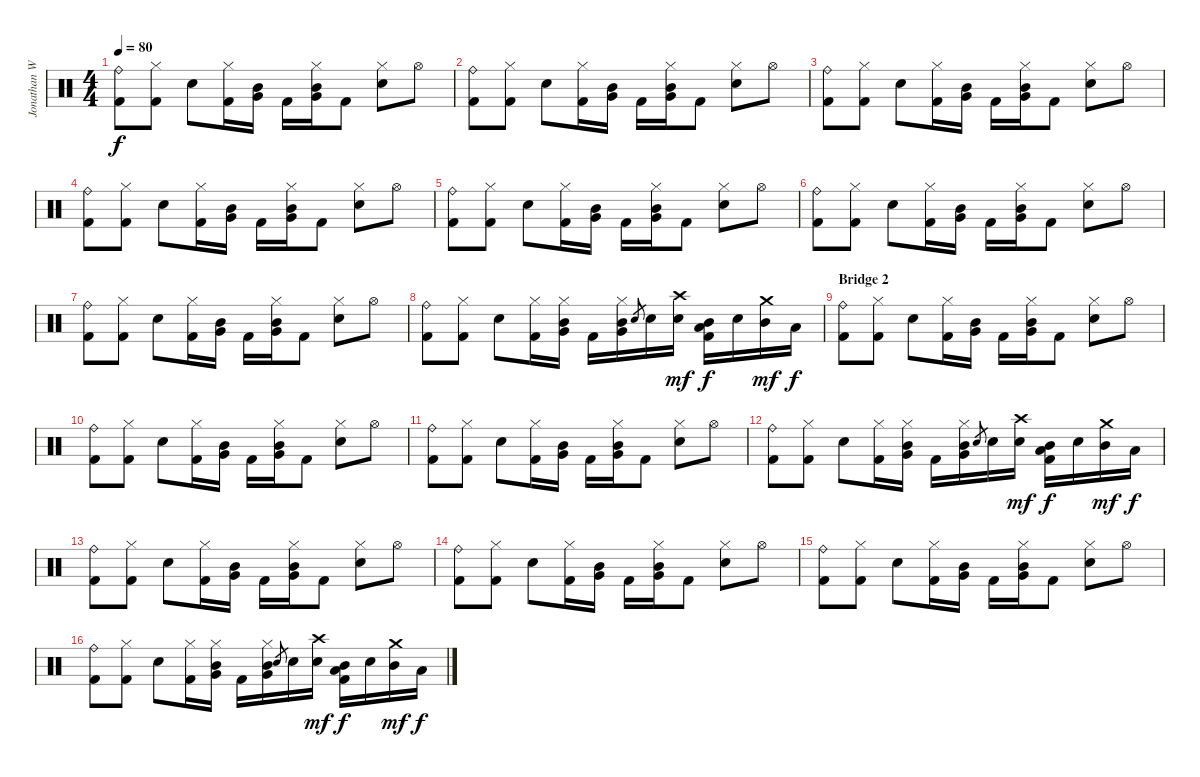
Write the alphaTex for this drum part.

\track ("Jonathan Wenzel" "Jonathan W") {instrument percussion}
\staff {score}
\articulation defaults
\ts (4 4)
\tempo 80
\clef neutral
\ks c
("Ride (bell)" "Kick (hit) 2").8{dy f volume 16} ("Hi-Hat (closed)" "Kick (hit) 2").8 "Snare (hit) 2".8 ("Hi-Hat (closed)" "Kick (hit) 2").16 ("Mid Tom (hit)" "Very Low Tom (hit)").16 "Kick (hit) 2".16 ("Hi-Hat (closed)" "Mid Tom (hit)" "Very Low Tom (hit)").16 "Kick (hit) 2".8 ("Hi-Hat (closed)" "Snare (hit) 2").8 "Hi-Hat (open)".8 |
("Ride (bell)" "Kick (hit) 2").8 ("Hi-Hat (closed)" "Kick (hit) 2").8 "Snare (hit) 2".8 ("Hi-Hat (closed)" "Kick (hit) 2").16 ("Mid Tom (hit)" "Very Low Tom (hit)").16 "Kick (hit) 2".16 ("Hi-Hat (closed)" "Mid Tom (hit)" "Very Low Tom (hit)").16 "Kick (hit) 2".8 ("Hi-Hat (closed)" "Snare (hit) 2").8 "Hi-Hat (open)".8 |
("Ride (bell)" "Kick (hit) 2").8 ("Hi-Hat (closed)" "Kick (hit) 2").8 "Snare (hit) 2".8 ("Hi-Hat (closed)" "Kick (hit) 2").16 ("Mid Tom (hit)" "Very Low Tom (hit)").16 "Kick (hit) 2".16 ("Hi-Hat (closed)" "Mid Tom (hit)" "Very Low Tom (hit)").16 "Kick (hit) 2".8 ("Hi-Hat (closed)" "Snare (hit) 2").8 "Hi-Hat (open)".8 |
("Ride (bell)" "Kick (hit) 2").8 ("Hi-Hat (closed)" "Kick (hit) 2").8 "Snare (hit) 2".8 ("Hi-Hat (closed)" "Kick (hit) 2").16 ("Mid Tom (hit)" "Very Low Tom (hit)").16 "Kick (hit) 2".16 ("Hi-Hat (closed)" "Mid Tom (hit)" "Very Low Tom (hit)").16 "Kick (hit) 2".8 ("Hi-Hat (closed)" "Snare (hit) 2").8 "Hi-Hat (open)".8 |
("Ride (bell)" "Kick (hit) 2").8{volume 16} ("Hi-Hat (closed)" "Kick (hit) 2").8 "Snare (hit) 2".8 ("Hi-Hat (closed)" "Kick (hit) 2").16 ("Mid Tom (hit)" "Very Low Tom (hit)").16 "Kick (hit) 2".16 ("Hi-Hat (closed)" "Mid Tom (hit)" "Very Low Tom (hit)").16 "Kick (hit) 2".8 ("Hi-Hat (closed)" "Snare (hit) 2").8 "Hi-Hat (open)".8 |
("Ride (bell)" "Kick (hit) 2").8 ("Hi-Hat (closed)" "Kick (hit) 2").8 "Snare (hit) 2".8 ("Hi-Hat (closed)" "Kick (hit) 2").16 ("Mid Tom (hit)" "Very Low Tom (hit)").16 "Kick (hit) 2".16 ("Hi-Hat (closed)" "Mid Tom (hit)" "Very Low Tom (hit)").16 "Kick (hit) 2".8 ("Hi-Hat (closed)" "Snare (hit) 2").8 "Hi-Hat (open)".8 |
("Ride (bell)" "Kick (hit) 2").8 ("Hi-Hat (closed)" "Kick (hit) 2").8 "Snare (hit) 2".8 ("Hi-Hat (closed)" "Kick (hit) 2").16 ("Mid Tom (hit)" "Very Low Tom (hit)").16 "Kick (hit) 2".16 ("Hi-Hat (closed)" "Mid Tom (hit)" "Very Low Tom (hit)").16 "Kick (hit) 2".8 ("Hi-Hat (closed)" "Snare (hit) 2").8 "Hi-Hat (open)".8 |
("Ride (bell)" "Kick (hit) 2").8 ("Hi-Hat (closed)" "Kick (hit) 2").8 "Snare (hit) 2".8 ("Hi-Hat (closed)" "Kick (hit) 2").16 ("Hi-Hat (closed)" "Mid Tom (hit)" "Very Low Tom (hit)").16 "Kick (hit) 2".16 ("Hi-Hat (closed)" "Mid Tom (hit)" "Very Low Tom (hit)").16 "Electric Snare (hit)".8{gr} "Electric Snare (hit)".16 ("Crash high (hit)" "Electric Snare (hit)").16{dy mf} ("Mid Tom (hit)" "Low Floor Tom (hit)" "Kick (hit) 2").16{dy f} "Electric Snare (hit)".16 ("Crash medium (hit)" "Mid Tom (hit)").16{dy mf} "Low Floor Tom (hit)".16{dy f} |
\section ("" "Bridge 2")
("Ride (bell)" "Kick (hit) 2").8{volume 16} ("Hi-Hat (closed)" "Kick (hit) 2").8 "Snare (hit) 2".8 ("Hi-Hat (closed)" "Kick (hit) 2").16 ("Mid Tom (hit)" "Very Low Tom (hit)").16 "Kick (hit) 2".16 ("Hi-Hat (closed)" "Mid Tom (hit)" "Very Low Tom (hit)").16 "Kick (hit) 2".8 ("Hi-Hat (closed)" "Snare (hit) 2").8 "Hi-Hat (open)".8 |
("Ride (bell)" "Kick (hit) 2").8 ("Hi-Hat (closed)" "Kick (hit) 2").8 "Snare (hit) 2".8 ("Hi-Hat (closed)" "Kick (hit) 2").16 ("Mid Tom (hit)" "Very Low Tom (hit)").16 "Kick (hit) 2".16 ("Hi-Hat (closed)" "Mid Tom (hit)" "Very Low Tom (hit)").16 "Kick (hit) 2".8 ("Hi-Hat (closed)" "Snare (hit) 2").8 "Hi-Hat (open)".8 |
("Ride (bell)" "Kick (hit) 2").8 ("Hi-Hat (closed)" "Kick (hit) 2").8 "Snare (hit) 2".8 ("Hi-Hat (closed)" "Kick (hit) 2").16 ("Mid Tom (hit)" "Very Low Tom (hit)").16 "Kick (hit) 2".16 ("Hi-Hat (closed)" "Mid Tom (hit)" "Very Low Tom (hit)").16 "Kick (hit) 2".8 ("Hi-Hat (closed)" "Snare (hit) 2").8 "Hi-Hat (open)".8 |
("Ride (bell)" "Kick (hit) 2").8 ("Hi-Hat (closed)" "Kick (hit) 2").8 "Snare (hit) 2".8 ("Hi-Hat (closed)" "Kick (hit) 2").16 ("Hi-Hat (closed)" "Mid Tom (hit)" "Very Low Tom (hit)").16 "Kick (hit) 2".16 ("Hi-Hat (closed)" "Mid Tom (hit)" "Very Low Tom (hit)").16 "Electric Snare (hit)".8{gr} "Electric Snare (hit)".16 ("Crash high (hit)" "Electric Snare (hit)").16{dy mf} ("Mid Tom (hit)" "Low Floor Tom (hit)" "Kick (hit) 2").16{dy f} "Electric Snare (hit)".16 ("Crash medium (hit)" "Mid Tom (hit)").16{dy mf} "Low Floor Tom (hit)".16{dy f} |
("Ride (bell)" "Kick (hit) 2").8{volume 16} ("Hi-Hat (closed)" "Kick (hit) 2").8 "Snare (hit) 2".8 ("Hi-Hat (closed)" "Kick (hit) 2").16 ("Mid Tom (hit)" "Very Low Tom (hit)").16 "Kick (hit) 2".16 ("Hi-Hat (closed)" "Mid Tom (hit)" "Very Low Tom (hit)").16 "Kick (hit) 2".8 ("Hi-Hat (closed)" "Snare (hit) 2").8 "Hi-Hat (open)".8 |
("Ride (bell)" "Kick (hit) 2").8 ("Hi-Hat (closed)" "Kick (hit) 2").8 "Snare (hit) 2".8 ("Hi-Hat (closed)" "Kick (hit) 2").16 ("Mid Tom (hit)" "Very Low Tom (hit)").16 "Kick (hit) 2".16 ("Hi-Hat (closed)" "Mid Tom (hit)" "Very Low Tom (hit)").16 "Kick (hit) 2".8 ("Hi-Hat (closed)" "Snare (hit) 2").8 "Hi-Hat (open)".8 |
("Ride (bell)" "Kick (hit) 2").8 ("Hi-Hat (closed)" "Kick (hit) 2").8 "Snare (hit) 2".8 ("Hi-Hat (closed)" "Kick (hit) 2").16 ("Mid Tom (hit)" "Very Low Tom (hit)").16 "Kick (hit) 2".16 ("Hi-Hat (closed)" "Mid Tom (hit)" "Very Low Tom (hit)").16 "Kick (hit) 2".8 ("Hi-Hat (closed)" "Snare (hit) 2").8 "Hi-Hat (open)".8 |
("Ride (bell)" "Kick (hit) 2").8 ("Hi-Hat (closed)" "Kick (hit) 2").8 "Snare (hit) 2".8 ("Hi-Hat (closed)" "Kick (hit) 2").16 ("Hi-Hat (closed)" "Mid Tom (hit)" "Very Low Tom (hit)").16 "Kick (hit) 2".16 ("Hi-Hat (closed)" "Mid Tom (hit)" "Very Low Tom (hit)").16 "Electric Snare (hit)".8{gr} "Electric Snare (hit)".16 ("Crash high (hit)" "Electric Snare (hit)").16{dy mf} ("Mid Tom (hit)" "Low Floor Tom (hit)" "Kick (hit) 2").16{dy f} "Electric Snare (hit)".16 ("Crash medium (hit)" "Mid Tom (hit)").16{dy mf} "Low Floor Tom (hit)".16{dy f}
